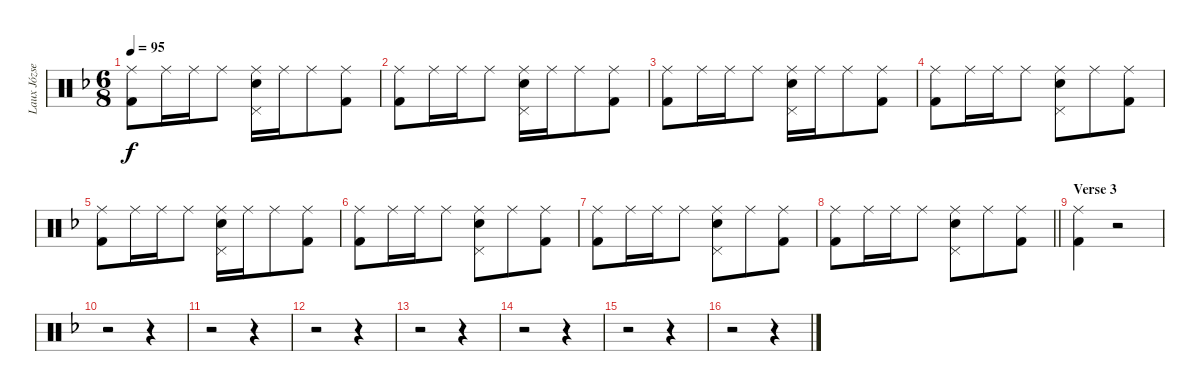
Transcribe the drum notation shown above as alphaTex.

\track ("Laux József" "Laux Józse") {instrument percussion}
\staff {score}
\articulation defaults
\ts (6 8)
\tempo 95
\clef neutral
\ks dminor
("Ride (middle)" "Kick (hit) 2").8{dy f} "Ride (middle)".16 "Ride (middle)".16 "Ride (middle)".8 ("Pedal Hi-Hat (hit)" "Ride (middle)" "Electric Snare (hit)").16 "Ride (middle)".16 "Ride (middle)".8 ("Ride (middle)" "Kick (hit) 2").8 |
("Ride (middle)" "Kick (hit) 2").8 "Ride (middle)".16 "Ride (middle)".16 "Ride (middle)".8 ("Pedal Hi-Hat (hit)" "Ride (middle)" "Electric Snare (hit)").16 "Ride (middle)".16 "Ride (middle)".8 ("Ride (middle)" "Kick (hit) 2").8 |
("Ride (middle)" "Kick (hit) 2").8 "Ride (middle)".16 "Ride (middle)".16 "Ride (middle)".8 ("Pedal Hi-Hat (hit)" "Ride (middle)" "Electric Snare (hit)").16 "Ride (middle)".16 "Ride (middle)".8 ("Ride (middle)" "Kick (hit) 2").8 |
("Ride (middle)" "Kick (hit) 2").8 "Ride (middle)".16 "Ride (middle)".16 "Ride (middle)".8 ("Pedal Hi-Hat (hit)" "Ride (middle)" "Electric Snare (hit)").8 "Ride (middle)".8 ("Ride (middle)" "Kick (hit) 2").8 |
("Ride (middle)" "Kick (hit) 2").8 "Ride (middle)".16 "Ride (middle)".16 "Ride (middle)".8 ("Pedal Hi-Hat (hit)" "Ride (middle)" "Electric Snare (hit)").16 "Ride (middle)".16 "Ride (middle)".8 ("Ride (middle)" "Kick (hit) 2").8 |
("Ride (middle)" "Kick (hit) 2").8 "Ride (middle)".16 "Ride (middle)".16 "Ride (middle)".8 ("Pedal Hi-Hat (hit)" "Ride (middle)" "Electric Snare (hit)").8 "Ride (middle)".8 ("Ride (middle)" "Kick (hit) 2").8 |
("Ride (middle)" "Kick (hit) 2").8 "Ride (middle)".16 "Ride (middle)".16 "Ride (middle)".8 ("Pedal Hi-Hat (hit)" "Ride (middle)" "Electric Snare (hit)").8 "Ride (middle)".8 ("Ride (middle)" "Kick (hit) 2").8 |
\barLineRight lightlight
("Ride (middle)" "Kick (hit) 2").8 "Ride (middle)".16 "Ride (middle)".16 "Ride (middle)".8 ("Pedal Hi-Hat (hit)" "Ride (middle)" "Electric Snare (hit)").8 "Ride (middle)".8 ("Ride (middle)" "Kick (hit) 2").8 |
\section ("" "Verse 3")
("Ride (middle)" "Kick (hit) 2").4 r.2 |
r.2 r.4 |
r.2 r.4 |
r.2 r.4 |
r.2 r.4 |
r.2 r.4 |
r.2 r.4 |
r.2 r.4
